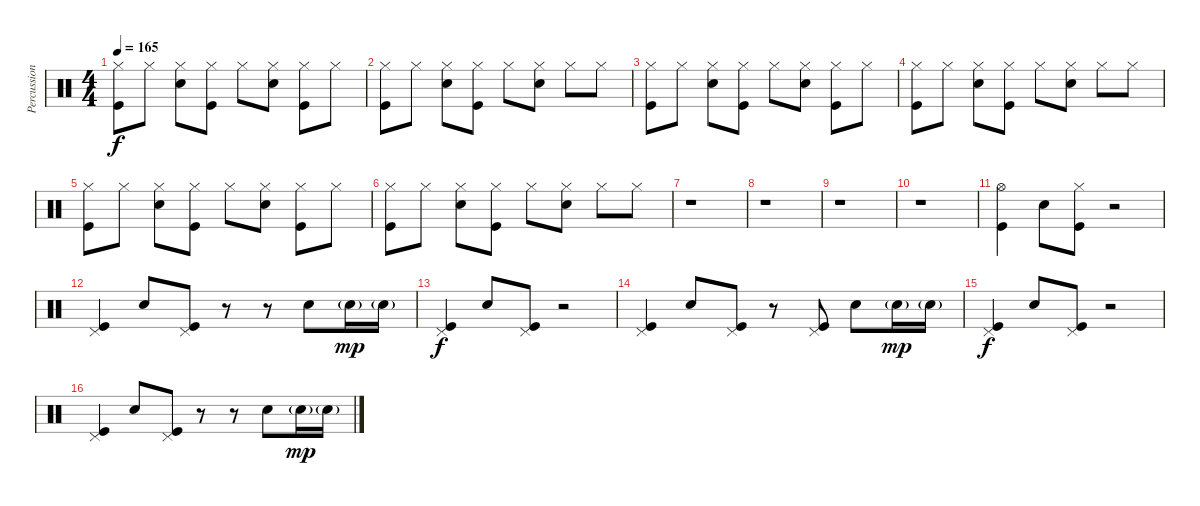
\track ("Percussion" "Percussion") {instrument percussion}
\staff {score}
\articulation defaults
\ts (4 4)
\tempo 165
\clef neutral
\ks c
("Hi-Hat (closed)" "Kick (hit)").8{dy f} "Hi-Hat (closed)".8 ("Hi-Hat (closed)" "Snare (hit) 2").8 ("Hi-Hat (closed)" "Kick (hit)").8 "Hi-Hat (closed)".8 ("Hi-Hat (closed)" "Snare (hit) 2").8 ("Hi-Hat (closed)" "Kick (hit)").8 "Hi-Hat (closed)".8 |
("Hi-Hat (closed)" "Kick (hit)").8 "Hi-Hat (closed)".8 ("Hi-Hat (closed)" "Snare (hit) 2").8 ("Hi-Hat (closed)" "Kick (hit)").8 "Hi-Hat (closed)".8 ("Hi-Hat (closed)" "Snare (hit) 2").8 "Hi-Hat (closed)".8 "Hi-Hat (closed)".8 |
("Hi-Hat (closed)" "Kick (hit)").8 "Hi-Hat (closed)".8 ("Hi-Hat (closed)" "Snare (hit) 2").8 ("Hi-Hat (closed)" "Kick (hit)").8 "Hi-Hat (closed)".8 ("Hi-Hat (closed)" "Snare (hit) 2").8 ("Hi-Hat (closed)" "Kick (hit)").8 "Hi-Hat (closed)".8 |
("Hi-Hat (closed)" "Kick (hit)").8 "Hi-Hat (closed)".8 ("Hi-Hat (closed)" "Snare (hit) 2").8 ("Hi-Hat (closed)" "Kick (hit)").8 "Hi-Hat (closed)".8 ("Hi-Hat (closed)" "Snare (hit) 2").8 "Hi-Hat (closed)".8 "Hi-Hat (closed)".8 |
("Hi-Hat (closed)" "Kick (hit)").8 "Hi-Hat (closed)".8 ("Hi-Hat (closed)" "Snare (hit) 2").8 ("Hi-Hat (closed)" "Kick (hit)").8 "Hi-Hat (closed)".8 ("Hi-Hat (closed)" "Snare (hit) 2").8 ("Hi-Hat (closed)" "Kick (hit)").8 "Hi-Hat (closed)".8 |
("Hi-Hat (closed)" "Kick (hit)").8 "Hi-Hat (closed)".8 ("Hi-Hat (closed)" "Snare (hit) 2").8 ("Hi-Hat (closed)" "Kick (hit)").8 "Hi-Hat (closed)".8 ("Hi-Hat (closed)" "Snare (hit) 2").8 "Hi-Hat (closed)".8 "Hi-Hat (closed)".8 |
r.1 |
r.1 |
r.1 |
r.1 |
("Hi-Hat (open)" "Kick (hit)").4 "Snare (hit) 2".8 ("Hi-Hat (closed)" "Kick (hit)").8 r.2 |
("Pedal Hi-Hat (hit)" "Kick (hit)").4 "Snare (hit) 2".8 ("Pedal Hi-Hat (hit)" "Kick (hit)").8 r.8 r.8 "Snare (hit) 2".8 "Snare (hit) 2"{g}.16{dy mp} "Snare (hit) 2"{g}.16 |
("Pedal Hi-Hat (hit)" "Kick (hit)").4{dy f} "Snare (hit) 2".8 ("Pedal Hi-Hat (hit)" "Kick (hit)").8 r.2 |
("Pedal Hi-Hat (hit)" "Kick (hit)").4 "Snare (hit) 2".8 ("Pedal Hi-Hat (hit)" "Kick (hit)").8 r.8 ("Pedal Hi-Hat (hit)" "Kick (hit)").8 "Snare (hit) 2".8 "Snare (hit) 2"{g}.16{dy mp} "Snare (hit) 2"{g}.16 |
("Pedal Hi-Hat (hit)" "Kick (hit)").4{dy f} "Snare (hit) 2".8 ("Pedal Hi-Hat (hit)" "Kick (hit)").8 r.2 |
("Pedal Hi-Hat (hit)" "Kick (hit)").4 "Snare (hit) 2".8 ("Pedal Hi-Hat (hit)" "Kick (hit)").8 r.8 r.8 "Snare (hit) 2".8 "Snare (hit) 2"{g}.16{dy mp} "Snare (hit) 2"{g}.16
